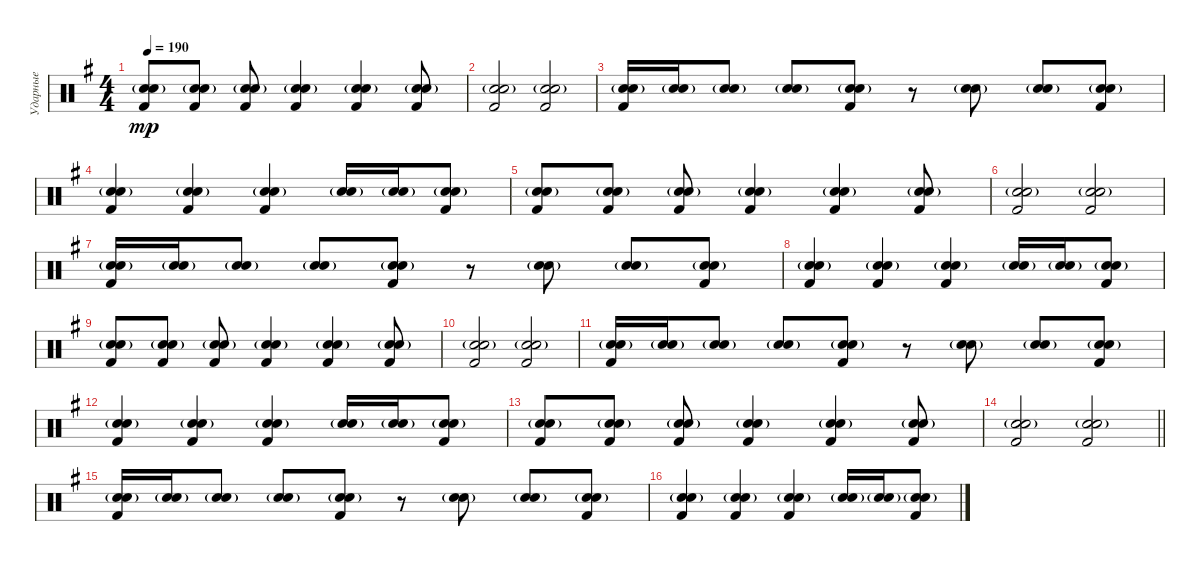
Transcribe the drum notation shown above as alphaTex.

\track ("Ударные" "Ударные") {instrument percussion}
\staff {score}
\articulation defaults
\ts (4 4)
\tempo 190
\clef neutral
\ks g
("Kick (hit) 2" "Snare (hit) 2"{g} "Electric Snare (hit)").8{dy mp} ("Kick (hit) 2" "Snare (hit) 2"{g} "Electric Snare (hit)").8 ("Kick (hit) 2" "Snare (hit) 2"{g} "Electric Snare (hit)").8 ("Kick (hit) 2" "Snare (hit) 2"{g} "Electric Snare (hit)").4 ("Kick (hit) 2" "Snare (hit) 2"{g} "Electric Snare (hit)").4 ("Kick (hit) 2" "Snare (hit) 2"{g} "Electric Snare (hit)").8 |
("Kick (hit) 2" "Snare (hit) 2"{g} "Electric Snare (hit)").2 ("Kick (hit) 2" "Snare (hit) 2"{g} "Electric Snare (hit)").2 |
("Kick (hit) 2" "Snare (hit) 2"{g} "Electric Snare (hit)").16 ("Snare (hit) 2"{g} "Electric Snare (hit)"{g}).16 ("Snare (hit) 2"{g} "Electric Snare (hit)"{g}).8 ("Snare (hit) 2"{g} "Electric Snare (hit)").8 ("Kick (hit) 2" "Snare (hit) 2"{g} "Electric Snare (hit)").8 r.8 ("Snare (hit) 2"{g} "Electric Snare (hit)").8 ("Snare (hit) 2"{g} "Electric Snare (hit)"{g}).8 ("Kick (hit) 2" "Snare (hit) 2"{g} "Electric Snare (hit)").8 |
("Kick (hit) 2" "Snare (hit) 2"{g} "Electric Snare (hit)").4 ("Kick (hit) 2" "Snare (hit) 2"{g} "Electric Snare (hit)").4 ("Kick (hit) 2" "Snare (hit) 2"{g} "Electric Snare (hit)").4 ("Snare (hit) 2"{g} "Electric Snare (hit)"{g}).16 ("Snare (hit) 2"{g} "Electric Snare (hit)"{g}).16 ("Kick (hit) 2" "Snare (hit) 2"{g} "Electric Snare (hit)").8 |
("Kick (hit) 2" "Snare (hit) 2"{g} "Electric Snare (hit)").8 ("Kick (hit) 2" "Snare (hit) 2"{g} "Electric Snare (hit)").8 ("Kick (hit) 2" "Snare (hit) 2"{g} "Electric Snare (hit)").8 ("Kick (hit) 2" "Snare (hit) 2"{g} "Electric Snare (hit)").4 ("Kick (hit) 2" "Snare (hit) 2"{g} "Electric Snare (hit)").4 ("Kick (hit) 2" "Snare (hit) 2"{g} "Electric Snare (hit)").8 |
("Kick (hit) 2" "Snare (hit) 2"{g} "Electric Snare (hit)").2 ("Kick (hit) 2" "Snare (hit) 2"{g} "Electric Snare (hit)").2 |
("Kick (hit) 2" "Snare (hit) 2"{g} "Electric Snare (hit)").16 ("Snare (hit) 2"{g} "Electric Snare (hit)"{g}).16 ("Snare (hit) 2"{g} "Electric Snare (hit)"{g}).8 ("Snare (hit) 2"{g} "Electric Snare (hit)").8 ("Kick (hit) 2" "Snare (hit) 2"{g} "Electric Snare (hit)").8 r.8 ("Snare (hit) 2"{g} "Electric Snare (hit)").8 ("Snare (hit) 2"{g} "Electric Snare (hit)"{g}).8 ("Kick (hit) 2" "Snare (hit) 2"{g} "Electric Snare (hit)").8 |
("Kick (hit) 2" "Snare (hit) 2"{g} "Electric Snare (hit)").4 ("Kick (hit) 2" "Snare (hit) 2"{g} "Electric Snare (hit)").4 ("Kick (hit) 2" "Snare (hit) 2"{g} "Electric Snare (hit)").4 ("Snare (hit) 2"{g} "Electric Snare (hit)"{g}).16 ("Snare (hit) 2"{g} "Electric Snare (hit)"{g}).16 ("Kick (hit) 2" "Snare (hit) 2"{g} "Electric Snare (hit)").8 |
("Kick (hit) 2" "Snare (hit) 2"{g} "Electric Snare (hit)").8 ("Kick (hit) 2" "Snare (hit) 2"{g} "Electric Snare (hit)").8 ("Kick (hit) 2" "Snare (hit) 2"{g} "Electric Snare (hit)").8 ("Kick (hit) 2" "Snare (hit) 2"{g} "Electric Snare (hit)").4 ("Kick (hit) 2" "Snare (hit) 2"{g} "Electric Snare (hit)").4 ("Kick (hit) 2" "Snare (hit) 2"{g} "Electric Snare (hit)").8 |
("Kick (hit) 2" "Snare (hit) 2"{g} "Electric Snare (hit)").2 ("Kick (hit) 2" "Snare (hit) 2"{g} "Electric Snare (hit)").2 |
("Kick (hit) 2" "Snare (hit) 2"{g} "Electric Snare (hit)").16 ("Snare (hit) 2"{g} "Electric Snare (hit)"{g}).16 ("Snare (hit) 2"{g} "Electric Snare (hit)"{g}).8 ("Snare (hit) 2"{g} "Electric Snare (hit)").8 ("Kick (hit) 2" "Snare (hit) 2"{g} "Electric Snare (hit)").8 r.8 ("Snare (hit) 2"{g} "Electric Snare (hit)").8 ("Snare (hit) 2"{g} "Electric Snare (hit)"{g}).8 ("Kick (hit) 2" "Snare (hit) 2"{g} "Electric Snare (hit)").8 |
("Kick (hit) 2" "Snare (hit) 2"{g} "Electric Snare (hit)").4 ("Kick (hit) 2" "Snare (hit) 2"{g} "Electric Snare (hit)").4 ("Kick (hit) 2" "Snare (hit) 2"{g} "Electric Snare (hit)").4 ("Snare (hit) 2"{g} "Electric Snare (hit)"{g}).16 ("Snare (hit) 2"{g} "Electric Snare (hit)"{g}).16 ("Kick (hit) 2" "Snare (hit) 2"{g} "Electric Snare (hit)").8 |
("Kick (hit) 2" "Snare (hit) 2"{g} "Electric Snare (hit)").8 ("Kick (hit) 2" "Snare (hit) 2"{g} "Electric Snare (hit)").8 ("Kick (hit) 2" "Snare (hit) 2"{g} "Electric Snare (hit)").8 ("Kick (hit) 2" "Snare (hit) 2"{g} "Electric Snare (hit)").4 ("Kick (hit) 2" "Snare (hit) 2"{g} "Electric Snare (hit)").4 ("Kick (hit) 2" "Snare (hit) 2"{g} "Electric Snare (hit)").8 |
\barLineRight lightlight
("Kick (hit) 2" "Snare (hit) 2"{g} "Electric Snare (hit)").2 ("Kick (hit) 2" "Snare (hit) 2"{g} "Electric Snare (hit)").2 |
("Kick (hit) 2" "Snare (hit) 2"{g} "Electric Snare (hit)").16 ("Snare (hit) 2"{g} "Electric Snare (hit)"{g}).16 ("Snare (hit) 2"{g} "Electric Snare (hit)"{g}).8 ("Snare (hit) 2"{g} "Electric Snare (hit)").8 ("Kick (hit) 2" "Snare (hit) 2"{g} "Electric Snare (hit)").8 r.8 ("Snare (hit) 2"{g} "Electric Snare (hit)").8 ("Snare (hit) 2"{g} "Electric Snare (hit)"{g}).8 ("Kick (hit) 2" "Snare (hit) 2"{g} "Electric Snare (hit)").8 |
("Kick (hit) 2" "Snare (hit) 2"{g} "Electric Snare (hit)").4 ("Kick (hit) 2" "Snare (hit) 2"{g} "Electric Snare (hit)").4 ("Kick (hit) 2" "Snare (hit) 2"{g} "Electric Snare (hit)").4 ("Snare (hit) 2"{g} "Electric Snare (hit)"{g}).16 ("Snare (hit) 2"{g} "Electric Snare (hit)"{g}).16 ("Kick (hit) 2" "Snare (hit) 2"{g} "Electric Snare (hit)").8
